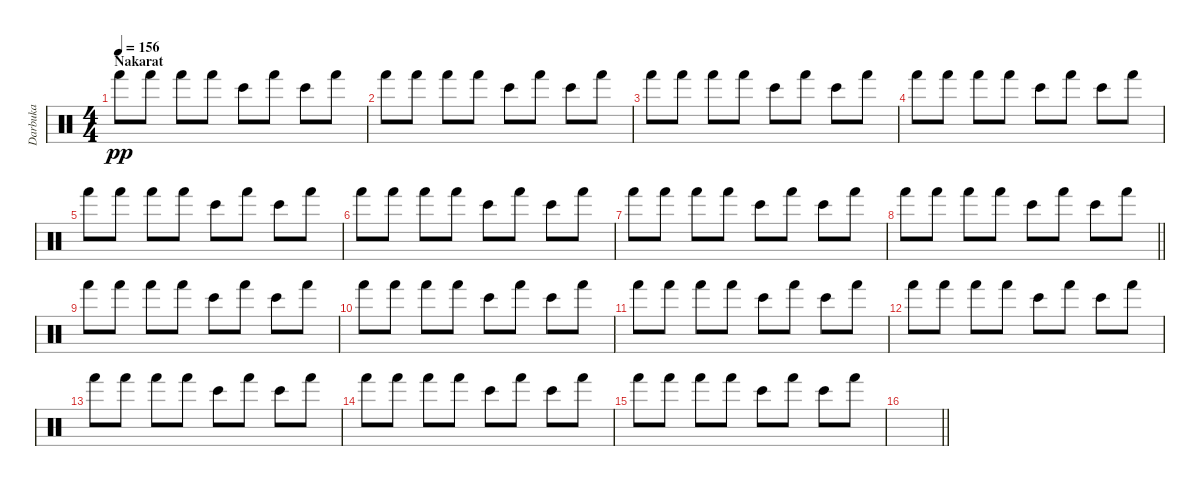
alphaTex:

\track ("Darbuka" "Darbuka") {instrument percussion}
\staff {score}
\articulation defaults
\ts (4 4)
\section ("" "Nakarat")
\tempo 156
\clef neutral
\ks c "Hand (hit)".8{dy pp} "Hand (hit)".8 "Hand (hit)".8 "Hand (hit)".8 "Bongo High (hit)".8 "Hand (hit)".8 "Bongo High (hit)".8 "Hand (hit)".8
|
"Hand (hit)".8 "Hand (hit)".8 "Hand (hit)".8 "Hand (hit)".8 "Bongo High (hit)".8 "Hand (hit)".8 "Bongo High (hit)".8 "Hand (hit)".8 |
"Hand (hit)".8 "Hand (hit)".8 "Hand (hit)".8 "Hand (hit)".8 "Bongo High (hit)".8 "Hand (hit)".8 "Bongo High (hit)".8 "Hand (hit)".8 |
"Hand (hit)".8 "Hand (hit)".8 "Hand (hit)".8 "Hand (hit)".8 "Bongo High (hit)".8 "Hand (hit)".8 "Bongo High (hit)".8 "Hand (hit)".8 |
"Hand (hit)".8 "Hand (hit)".8 "Hand (hit)".8 "Hand (hit)".8 "Bongo High (hit)".8 "Hand (hit)".8 "Bongo High (hit)".8 "Hand (hit)".8 |
"Hand (hit)".8 "Hand (hit)".8 "Hand (hit)".8 "Hand (hit)".8 "Bongo High (hit)".8 "Hand (hit)".8 "Bongo High (hit)".8 "Hand (hit)".8 |
"Hand (hit)".8 "Hand (hit)".8 "Hand (hit)".8 "Hand (hit)".8 "Bongo High (hit)".8 "Hand (hit)".8 "Bongo High (hit)".8 "Hand (hit)".8 |
\barLineRight lightlight "Hand (hit)".8 "Hand (hit)".8 "Hand (hit)".8 "Hand (hit)".8 "Bongo High (hit)".8 "Hand (hit)".8 "Bongo High (hit)".8 "Hand (hit)".8
|
"Hand (hit)".8 "Hand (hit)".8 "Hand (hit)".8 "Hand (hit)".8 "Bongo High (hit)".8 "Hand (hit)".8 "Bongo High (hit)".8 "Hand (hit)".8 |
"Hand (hit)".8 "Hand (hit)".8 "Hand (hit)".8 "Hand (hit)".8 "Bongo High (hit)".8 "Hand (hit)".8 "Bongo High (hit)".8 "Hand (hit)".8 |
"Hand (hit)".8 "Hand (hit)".8 "Hand (hit)".8 "Hand (hit)".8 "Bongo High (hit)".8 "Hand (hit)".8 "Bongo High (hit)".8 "Hand (hit)".8 |
"Hand (hit)".8 "Hand (hit)".8 "Hand (hit)".8 "Hand (hit)".8 "Bongo High (hit)".8 "Hand (hit)".8 "Bongo High (hit)".8 "Hand (hit)".8 |
"Hand (hit)".8 "Hand (hit)".8 "Hand (hit)".8 "Hand (hit)".8 "Bongo High (hit)".8 "Hand (hit)".8 "Bongo High (hit)".8 "Hand (hit)".8 |
"Hand (hit)".8 "Hand (hit)".8 "Hand (hit)".8 "Hand (hit)".8 "Bongo High (hit)".8 "Hand (hit)".8 "Bongo High (hit)".8 "Hand (hit)".8 |
"Hand (hit)".8 "Hand (hit)".8 "Hand (hit)".8 "Hand (hit)".8 "Bongo High (hit)".8 "Hand (hit)".8 "Bongo High (hit)".8 "Hand (hit)".8 |
\barLineRight lightlight
